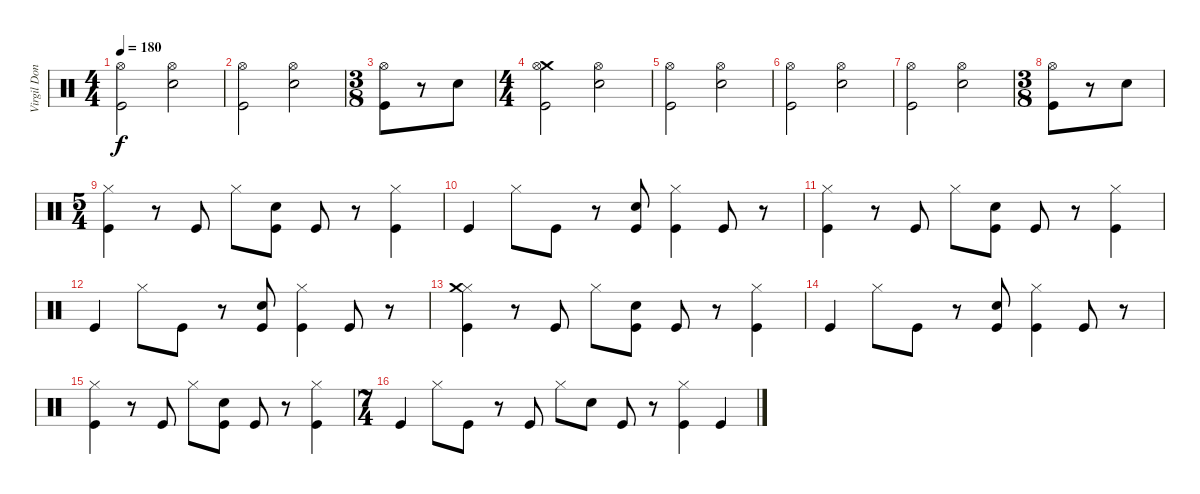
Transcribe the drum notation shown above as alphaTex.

\track ("Virgil Donati" "Virgil Don") {instrument percussion}
\staff {score}
\articulation defaults
\ts (4 4)
\tempo 180
\clef neutral
\ks c
("Hi-Hat (open)" "Kick (hit)").2{dy f} ("Hi-Hat (open)" "Electric Snare (hit)").2 |
("Hi-Hat (open)" "Kick (hit)").2 ("Hi-Hat (open)" "Electric Snare (hit)").2 |
\ts (3 8)
("Hi-Hat (open)" "Kick (hit)").8 r.8 "Electric Snare (hit)".8 |
\ts (4 4)
("Crash medium (hit)" "Hi-Hat (open)" "Kick (hit)").2 ("Hi-Hat (open)" "Electric Snare (hit)").2 |
("Hi-Hat (open)" "Kick (hit)").2 ("Hi-Hat (open)" "Electric Snare (hit)").2 |
("Hi-Hat (open)" "Kick (hit)").2 ("Hi-Hat (open)" "Electric Snare (hit)").2 |
("Hi-Hat (open)" "Kick (hit)").2 ("Hi-Hat (open)" "Electric Snare (hit)").2 |
\ts (3 8)
("Hi-Hat (open)" "Kick (hit)").8 r.8 "Electric Snare (hit)".8 |
\ts (5 4)
("Hi-Hat (closed)" "Kick (hit)").4 r.8 "Kick (hit)".8 "Hi-Hat (closed)".8 ("Snare (hit) 2" "Kick (hit)").8 "Kick (hit)".8 r.8 ("Hi-Hat (closed)" "Kick (hit)").4 |
"Kick (hit)".4 "Hi-Hat (closed)".8 "Kick (hit)".8 r.8 ("Snare (hit) 2" "Kick (hit)").8 ("Hi-Hat (closed)" "Kick (hit)").4 "Kick (hit)".8 r.8 |
("Hi-Hat (closed)" "Kick (hit)").4 r.8 "Kick (hit)".8 "Hi-Hat (closed)".8 ("Snare (hit) 2" "Kick (hit)").8 "Kick (hit)".8 r.8 ("Hi-Hat (closed)" "Kick (hit)").4 |
"Kick (hit)".4 "Hi-Hat (closed)".8 "Kick (hit)".8 r.8 ("Snare (hit) 2" "Kick (hit)").8 ("Hi-Hat (closed)" "Kick (hit)").4 "Kick (hit)".8 r.8 |
("Hi-Hat (closed)" "Crash medium (hit)" "Kick (hit)").4 r.8 "Kick (hit)".8 "Hi-Hat (closed)".8 ("Snare (hit) 2" "Kick (hit)").8 "Kick (hit)".8 r.8 ("Hi-Hat (closed)" "Kick (hit)").4 |
"Kick (hit)".4 "Hi-Hat (closed)".8 "Kick (hit)".8 r.8 ("Snare (hit) 2" "Kick (hit)").8 ("Hi-Hat (closed)" "Kick (hit)").4 "Kick (hit)".8 r.8 |
("Hi-Hat (closed)" "Kick (hit)").4 r.8 "Kick (hit)".8 "Hi-Hat (closed)".8 ("Snare (hit) 2" "Kick (hit)").8 "Kick (hit)".8 r.8 ("Hi-Hat (closed)" "Kick (hit)").4 |
\ts (7 4)
"Kick (hit)".4 "Hi-Hat (closed)".8 "Kick (hit)".8 r.8 "Kick (hit)".8 "Hi-Hat (closed)".8 "Snare (hit) 2".8 "Kick (hit)".8 r.8 ("Hi-Hat (closed)" "Kick (hit)").4 "Kick (hit)".4
